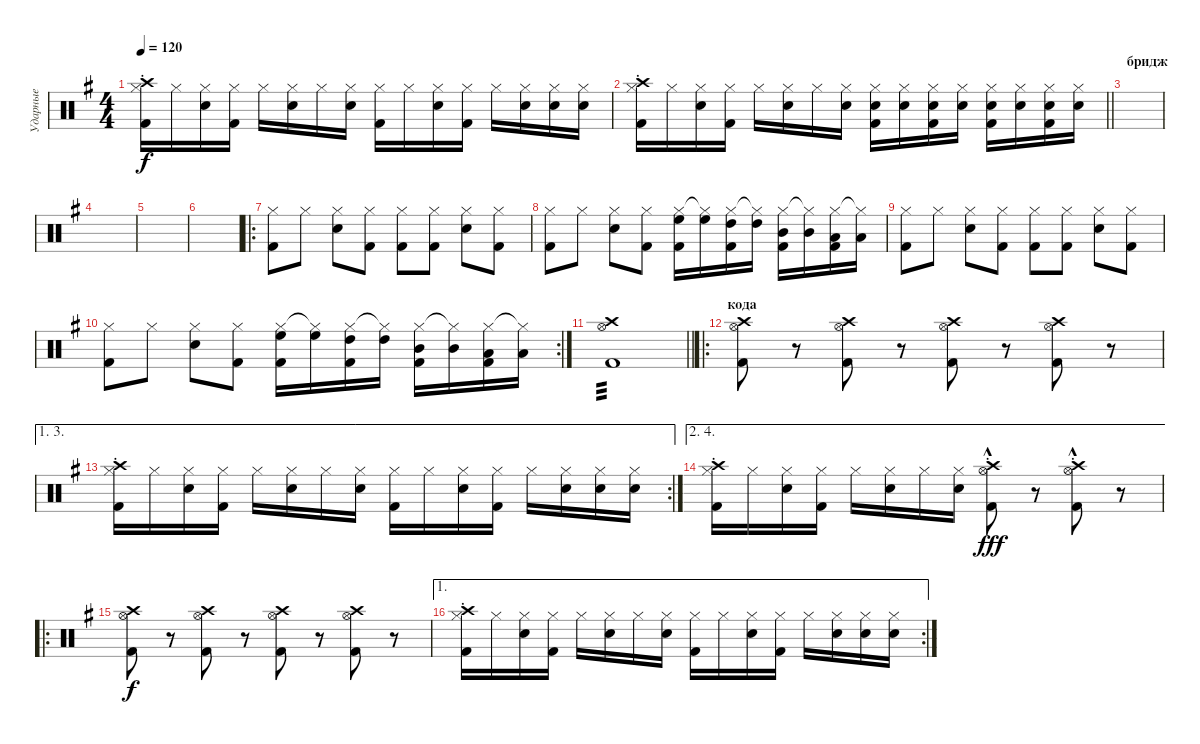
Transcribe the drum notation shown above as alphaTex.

\track ("Ударные" "Ударные") {instrument percussion}
\staff {score}
\articulation defaults
\ts (4 4)
\tempo 120
\clef neutral
\ks eminor
("Hi-Hat (closed)" "Crash high (hit)" "Kick (hit) 2"{st}).16{dy f} "Hi-Hat (closed)".16 ("Hi-Hat (closed)" "Snare (hit) 2").16 ("Hi-Hat (closed)" "Kick (hit) 2").16 "Hi-Hat (closed)".16 ("Hi-Hat (closed)" "Snare (hit) 2").16 "Hi-Hat (closed)".16 ("Hi-Hat (closed)" "Snare (hit) 2").16 ("Hi-Hat (closed)" "Kick (hit) 2").16 "Hi-Hat (closed)".16 ("Hi-Hat (closed)" "Snare (hit) 2").16 ("Hi-Hat (closed)" "Kick (hit) 2").16 "Hi-Hat (closed)".16 ("Hi-Hat (closed)" "Snare (hit) 2").16 ("Hi-Hat (closed)" "Snare (hit) 2").16 ("Hi-Hat (closed)" "Snare (hit) 2").16 |
\barLineRight lightlight
("Hi-Hat (closed)" "Crash high (hit)" "Kick (hit) 2"{st}).16 "Hi-Hat (closed)".16 ("Hi-Hat (closed)" "Snare (hit) 2").16 ("Hi-Hat (closed)" "Kick (hit) 2").16 "Hi-Hat (closed)".16 ("Hi-Hat (closed)" "Snare (hit) 2").16 "Hi-Hat (closed)".16 ("Hi-Hat (closed)" "Snare (hit) 2").16 ("Hi-Hat (closed)" "Snare (hit) 2" "Kick (hit) 2").16 ("Hi-Hat (closed)" "Snare (hit) 2").16 ("Hi-Hat (closed)" "Snare (hit) 2" "Kick (hit) 2").16 ("Hi-Hat (closed)" "Snare (hit) 2").16 ("Hi-Hat (closed)" "Snare (hit) 2" "Kick (hit) 2").16 ("Hi-Hat (closed)" "Snare (hit) 2").16 ("Hi-Hat (closed)" "Snare (hit) 2" "Kick (hit) 2").16 ("Hi-Hat (closed)" "Snare (hit) 2").16 |
\section ("" "бридж")
|
|
|
|
\ro
("Hi-Hat (closed)" "Kick (hit) 2").8 "Hi-Hat (closed)".8 ("Hi-Hat (closed)" "Snare (hit) 2").8 ("Hi-Hat (closed)" "Kick (hit) 2").8 ("Hi-Hat (closed)" "Kick (hit) 2").8 ("Hi-Hat (closed)" "Kick (hit) 2").8 ("Hi-Hat (closed)" "Snare (hit) 2").8 ("Hi-Hat (closed)" "Kick (hit) 2").8 |
("Hi-Hat (closed)" "Kick (hit) 2").8 "Hi-Hat (closed)".8 ("Hi-Hat (closed)" "Snare (hit) 2").8 ("Hi-Hat (closed)" "Kick (hit) 2").8 ("Hi-Hat (closed)" "High Floor Tom (hit)" "Kick (hit) 2").16 ("Hi-Hat (closed)"{t} "High Floor Tom (hit)").16 ("Hi-Hat (closed)" "High Tom (hit)" "Kick (hit) 2").16 ("Hi-Hat (closed)"{t} "High Tom (hit)").16 ("Hi-Hat (closed)" "Mid Tom (hit)" "Kick (hit) 2").16 ("Hi-Hat (closed)"{t} "Mid Tom (hit)").16 ("Hi-Hat (closed)" "Low Tom (hit)" "Kick (hit) 2").16 ("Hi-Hat (closed)"{t} "Low Tom (hit)").16 |
("Hi-Hat (closed)" "Kick (hit) 2").8 "Hi-Hat (closed)".8 ("Hi-Hat (closed)" "Snare (hit) 2").8 ("Hi-Hat (closed)" "Kick (hit) 2").8 ("Hi-Hat (closed)" "Kick (hit) 2").8 ("Hi-Hat (closed)" "Kick (hit) 2").8 ("Hi-Hat (closed)" "Snare (hit) 2").8 ("Hi-Hat (closed)" "Kick (hit) 2").8 |
\rc 2
("Hi-Hat (closed)" "Kick (hit) 2").8 "Hi-Hat (closed)".8 ("Hi-Hat (closed)" "Snare (hit) 2").8 ("Hi-Hat (closed)" "Kick (hit) 2").8 ("Hi-Hat (closed)" "High Floor Tom (hit)" "Kick (hit) 2").16 ("Hi-Hat (closed)"{t} "High Floor Tom (hit)").16 ("Hi-Hat (closed)" "High Tom (hit)" "Kick (hit) 2").16 ("Hi-Hat (closed)"{t} "High Tom (hit)").16 ("Hi-Hat (closed)" "Mid Tom (hit)" "Kick (hit) 2").16 ("Hi-Hat (closed)"{t} "Mid Tom (hit)").16 ("Hi-Hat (closed)" "Low Tom (hit)" "Kick (hit) 2").16 ("Hi-Hat (closed)"{t} "Low Tom (hit)").16 |
\barLineRight lightlight
("Crash high (hit)" "Hi-Hat (open)" "Kick (hit) 2").1{tp 3} |
\ro
\section ("" "кода")
("Crash high (hit)" "Hi-Hat (open)" "Kick (hit) 2").8 r.8 ("Crash high (hit)" "Hi-Hat (open)" "Kick (hit) 2").8 r.8 ("Crash high (hit)" "Hi-Hat (open)" "Kick (hit) 2").8 r.8 ("Crash high (hit)" "Hi-Hat (open)" "Kick (hit) 2").8 r.8 |
\ae (1 3)
\rc 2
("Hi-Hat (closed)" "Crash high (hit)" "Kick (hit) 2"{st}).16 "Hi-Hat (closed)".16 ("Hi-Hat (closed)" "Snare (hit) 2").16 ("Hi-Hat (closed)" "Kick (hit) 2").16 "Hi-Hat (closed)".16 ("Hi-Hat (closed)" "Snare (hit) 2").16 "Hi-Hat (closed)".16 ("Hi-Hat (closed)" "Snare (hit) 2").16 ("Hi-Hat (closed)" "Kick (hit) 2").16 "Hi-Hat (closed)".16 ("Hi-Hat (closed)" "Snare (hit) 2").16 ("Hi-Hat (closed)" "Kick (hit) 2").16 "Hi-Hat (closed)".16 ("Hi-Hat (closed)" "Snare (hit) 2").16 ("Hi-Hat (closed)" "Snare (hit) 2").16 ("Hi-Hat (closed)" "Snare (hit) 2").16 |
\ae (2 4)
("Hi-Hat (closed)" "Crash high (hit)" "Kick (hit) 2"{st}).16 "Hi-Hat (closed)".16 ("Hi-Hat (closed)" "Snare (hit) 2").16 ("Hi-Hat (closed)" "Kick (hit) 2").16 "Hi-Hat (closed)".16 ("Hi-Hat (closed)" "Snare (hit) 2").16 "Hi-Hat (closed)".16 ("Hi-Hat (closed)" "Snare (hit) 2").16 ("Crash high (hit)" "Hi-Hat (open)" "Kick (hit) 2"{hac st}).8{dy fff} r.8 ("Crash high (hit)" "Hi-Hat (open)" "Kick (hit) 2"{hac st}).8 r.8 |
\ro
("Crash high (hit)" "Hi-Hat (open)" "Kick (hit) 2").8{dy f} r.8 ("Crash high (hit)" "Hi-Hat (open)" "Kick (hit) 2").8 r.8 ("Crash high (hit)" "Hi-Hat (open)" "Kick (hit) 2").8 r.8 ("Crash high (hit)" "Hi-Hat (open)" "Kick (hit) 2").8 r.8 |
\ae 1
\rc 2
("Hi-Hat (closed)" "Crash high (hit)" "Kick (hit) 2"{st}).16 "Hi-Hat (closed)".16 ("Hi-Hat (closed)" "Snare (hit) 2").16 ("Hi-Hat (closed)" "Kick (hit) 2").16 "Hi-Hat (closed)".16 ("Hi-Hat (closed)" "Snare (hit) 2").16 "Hi-Hat (closed)".16 ("Hi-Hat (closed)" "Snare (hit) 2").16 ("Hi-Hat (closed)" "Kick (hit) 2").16 "Hi-Hat (closed)".16 ("Hi-Hat (closed)" "Snare (hit) 2").16 ("Hi-Hat (closed)" "Kick (hit) 2").16 "Hi-Hat (closed)".16 ("Hi-Hat (closed)" "Snare (hit) 2").16 ("Hi-Hat (closed)" "Snare (hit) 2").16 ("Hi-Hat (closed)" "Snare (hit) 2").16
